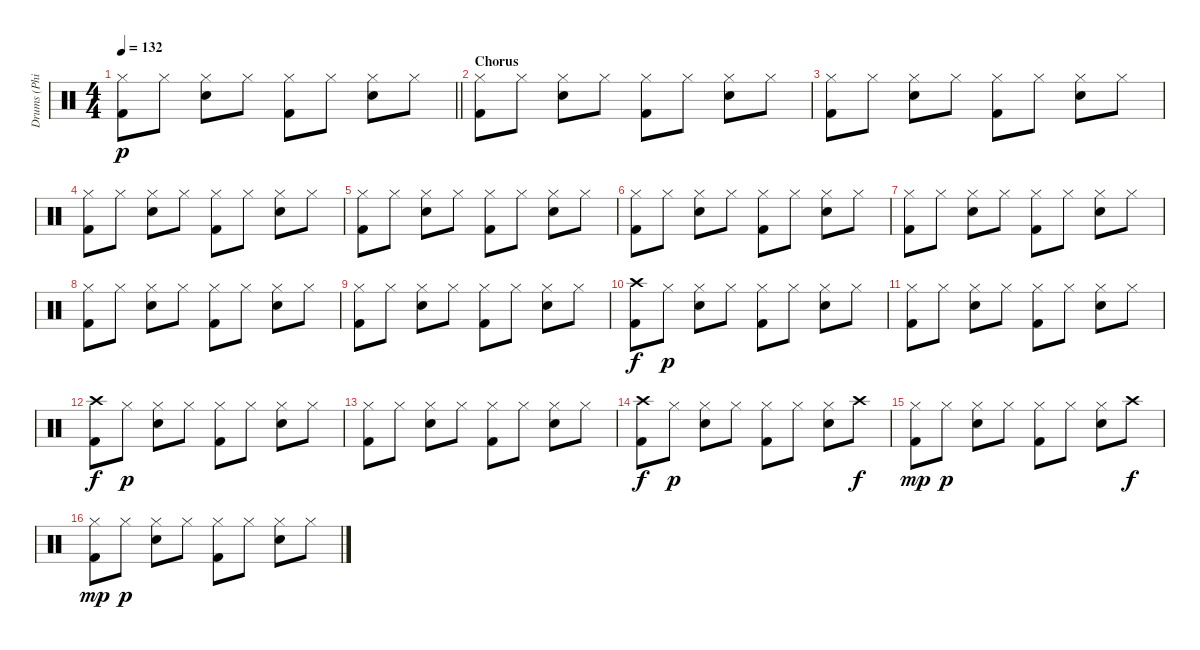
\track ("Drums (Phil Rudd)" "Drums (Phi") {instrument percussion}
\staff {score}
\articulation defaults
\ts (4 4)
\tempo 132
\clef neutral
\barLineRight lightlight
\ks c
("Hi-Hat (closed)" "Kick (hit) 2").8{dy p} "Hi-Hat (closed)".8 ("Hi-Hat (closed)" "Snare (hit) 2").8 "Hi-Hat (closed)".8 ("Hi-Hat (closed)" "Kick (hit) 2").8 "Hi-Hat (closed)".8 ("Hi-Hat (closed)" "Snare (hit) 2").8 "Hi-Hat (closed)".8 |
\section ("" "Chorus")
("Hi-Hat (closed)" "Kick (hit) 2").8 "Hi-Hat (closed)".8 ("Hi-Hat (closed)" "Snare (hit) 2").8 "Hi-Hat (closed)".8 ("Hi-Hat (closed)" "Kick (hit) 2").8 "Hi-Hat (closed)".8 ("Hi-Hat (closed)" "Snare (hit) 2").8 "Hi-Hat (closed)".8 |
("Hi-Hat (closed)" "Kick (hit) 2").8 "Hi-Hat (closed)".8 ("Hi-Hat (closed)" "Snare (hit) 2").8 "Hi-Hat (closed)".8 ("Hi-Hat (closed)" "Kick (hit) 2").8 "Hi-Hat (closed)".8 ("Hi-Hat (closed)" "Snare (hit) 2").8 "Hi-Hat (closed)".8 |
("Hi-Hat (closed)" "Kick (hit) 2").8 "Hi-Hat (closed)".8 ("Hi-Hat (closed)" "Snare (hit) 2").8 "Hi-Hat (closed)".8 ("Hi-Hat (closed)" "Kick (hit) 2").8 "Hi-Hat (closed)".8 ("Hi-Hat (closed)" "Snare (hit) 2").8 "Hi-Hat (closed)".8 |
("Hi-Hat (closed)" "Kick (hit) 2").8 "Hi-Hat (closed)".8 ("Hi-Hat (closed)" "Snare (hit) 2").8 "Hi-Hat (closed)".8 ("Hi-Hat (closed)" "Kick (hit) 2").8 "Hi-Hat (closed)".8 ("Hi-Hat (closed)" "Snare (hit) 2").8 "Hi-Hat (closed)".8 |
("Hi-Hat (closed)" "Kick (hit) 2").8 "Hi-Hat (closed)".8 ("Hi-Hat (closed)" "Snare (hit) 2").8 "Hi-Hat (closed)".8 ("Hi-Hat (closed)" "Kick (hit) 2").8 "Hi-Hat (closed)".8 ("Hi-Hat (closed)" "Snare (hit) 2").8 "Hi-Hat (closed)".8 |
("Hi-Hat (closed)" "Kick (hit) 2").8 "Hi-Hat (closed)".8 ("Hi-Hat (closed)" "Snare (hit) 2").8 "Hi-Hat (closed)".8 ("Hi-Hat (closed)" "Kick (hit) 2").8 "Hi-Hat (closed)".8 ("Hi-Hat (closed)" "Snare (hit) 2").8 "Hi-Hat (closed)".8 |
("Hi-Hat (closed)" "Kick (hit) 2").8 "Hi-Hat (closed)".8 ("Hi-Hat (closed)" "Snare (hit) 2").8 "Hi-Hat (closed)".8 ("Hi-Hat (closed)" "Kick (hit) 2").8 "Hi-Hat (closed)".8 ("Hi-Hat (closed)" "Snare (hit) 2").8 "Hi-Hat (closed)".8 |
("Hi-Hat (closed)" "Kick (hit) 2").8 "Hi-Hat (closed)".8 ("Hi-Hat (closed)" "Snare (hit) 2").8 "Hi-Hat (closed)".8 ("Hi-Hat (closed)" "Kick (hit) 2").8 "Hi-Hat (closed)".8 ("Hi-Hat (closed)" "Snare (hit) 2").8 "Hi-Hat (closed)".8 |
("Crash high (hit)" "Kick (hit) 2").8{dy f} "Hi-Hat (closed)".8{dy p} ("Hi-Hat (closed)" "Snare (hit) 2").8 "Hi-Hat (closed)".8 ("Hi-Hat (closed)" "Kick (hit) 2").8 "Hi-Hat (closed)".8 ("Hi-Hat (closed)" "Snare (hit) 2").8 "Hi-Hat (closed)".8 |
("Hi-Hat (closed)" "Kick (hit) 2").8 "Hi-Hat (closed)".8 ("Hi-Hat (closed)" "Snare (hit) 2").8 "Hi-Hat (closed)".8 ("Hi-Hat (closed)" "Kick (hit) 2").8 "Hi-Hat (closed)".8 ("Hi-Hat (closed)" "Snare (hit) 2").8 "Hi-Hat (closed)".8 |
("Crash high (hit)" "Kick (hit) 2").8{dy f} "Hi-Hat (closed)".8{dy p} ("Hi-Hat (closed)" "Snare (hit) 2").8 "Hi-Hat (closed)".8 ("Hi-Hat (closed)" "Kick (hit) 2").8 "Hi-Hat (closed)".8 ("Hi-Hat (closed)" "Snare (hit) 2").8 "Hi-Hat (closed)".8 |
("Hi-Hat (closed)" "Kick (hit) 2").8 "Hi-Hat (closed)".8 ("Hi-Hat (closed)" "Snare (hit) 2").8 "Hi-Hat (closed)".8 ("Hi-Hat (closed)" "Kick (hit) 2").8 "Hi-Hat (closed)".8 ("Hi-Hat (closed)" "Snare (hit) 2").8 "Hi-Hat (closed)".8 |
("Crash high (hit)" "Kick (hit) 2").8{dy f} "Hi-Hat (closed)".8{dy p} ("Hi-Hat (closed)" "Snare (hit) 2").8 "Hi-Hat (closed)".8 ("Hi-Hat (closed)" "Kick (hit) 2").8 "Hi-Hat (closed)".8 ("Hi-Hat (closed)" "Snare (hit) 2").8 "Crash high (hit)".8{dy f} |
("Hi-Hat (closed)" "Kick (hit) 2").8{dy mp} "Hi-Hat (closed)".8{dy p} ("Hi-Hat (closed)" "Snare (hit) 2").8 "Hi-Hat (closed)".8 ("Hi-Hat (closed)" "Kick (hit) 2").8 "Hi-Hat (closed)".8 ("Hi-Hat (closed)" "Snare (hit) 2").8 "Crash high (hit)".8{dy f} |
("Hi-Hat (closed)" "Kick (hit) 2").8{dy mp} "Hi-Hat (closed)".8{dy p} ("Hi-Hat (closed)" "Snare (hit) 2").8 "Hi-Hat (closed)".8 ("Hi-Hat (closed)" "Kick (hit) 2").8 "Hi-Hat (closed)".8 ("Hi-Hat (closed)" "Snare (hit) 2").8 "Hi-Hat (closed)".8
